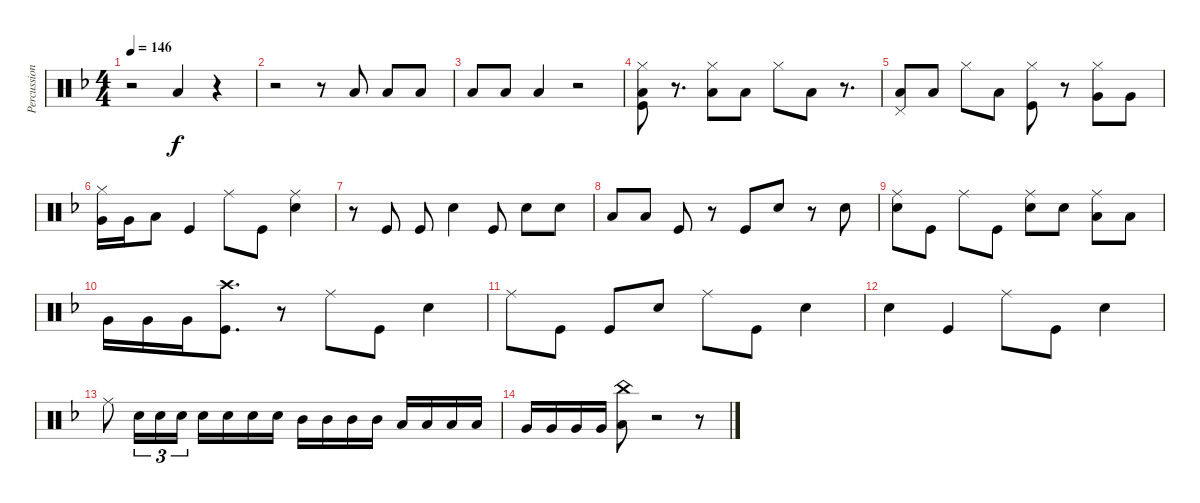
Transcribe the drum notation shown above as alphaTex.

\track ("Percussioni" "Percussion") {instrument percussion}
\staff {score}
\articulation defaults
\ts (4 4)
\tempo 146
\clef neutral
\ks dminor
r.2{dy f} "Low Floor Tom (hit)".4 r.4 |
r.2 r.8 "Low Floor Tom (hit)".8 "Low Floor Tom (hit)".8 "Low Floor Tom (hit)".8 |
"Low Floor Tom (hit)".8 "Low Floor Tom (hit)".8 "Low Floor Tom (hit)".4 r.2 |
("Kick (hit)" "Low Floor Tom (hit)" "Hi-Hat (closed)").8 r.8{d} ("Low Floor Tom (hit)" "Hi-Hat (closed)").8 "Low Floor Tom (hit)".8 "Hi-Hat (closed)".8 "Low Floor Tom (hit)".8 r.8{d} |
("Pedal Hi-Hat (hit)" "Low Floor Tom (hit)").8 "Low Floor Tom (hit)".8 "Hi-Hat (closed)".8 "Low Floor Tom (hit)".8 ("Kick (hit)" "Hi-Hat (closed)").8 r.8 ("Very Low Tom (hit)" "Hi-Hat (closed)").8 "Very Low Tom (hit)".8 |
("Very Low Tom (hit)" "Hi-Hat (closed)").16 "Very Low Tom (hit)".16 "Low Floor Tom (hit)".8 "Kick (hit)".4 "Ride (middle)".8 "Kick (hit)".8 ("Snare (hit) 2" "Ride (middle)").4 |
r.8 "Kick (hit)".8 "Kick (hit)".8 "Snare (hit) 2".4 "Kick (hit)".8 "Snare (hit) 2".8 "Snare (hit) 2".8 |
"Low Floor Tom (hit)".8 "Low Floor Tom (hit)".8 "Kick (hit)".8 r.8 "Kick (hit)".8 "Snare (hit) 2".8 r.8 "Snare (hit) 2".8 |
("Ride (middle)" "Snare (hit) 2").8 "Kick (hit)".8 "Ride (middle)".8 "Kick (hit)".8 ("Ride (middle)" "Snare (hit) 2").8 "Snare (hit) 2".8 ("Ride (middle)" "Low Floor Tom (hit)").8 "Low Floor Tom (hit)".8 |
"Very Low Tom (hit)".16 "Very Low Tom (hit)".16 "Very Low Tom (hit)".16 ("Kick (hit)" "Crash high (hit)").8{d} r.8 "Ride (middle)".8 "Kick (hit)".8 "Snare (hit) 2".4 |
"Ride (middle)".8 "Kick (hit)".8 "Kick (hit)".8 "Snare (hit) 2".8 "Ride (middle)".8 "Kick (hit)".8 "Snare (hit) 2".4 |
"Snare (hit) 2".4 "Kick (hit)".4 "Ride (middle)".8 "Kick (hit)".8 "Snare (hit) 2".4 |
"Ride (middle)".8 "Snare (hit) 2".16{tu (3 2)} "Snare (hit) 2".16{tu (3 2)} "Snare (hit) 2".16{tu (3 2)} "Snare (hit) 2".16 "Snare (hit) 2".16 "Snare (hit) 2".16 "Snare (hit) 2".16 "Mid Tom (hit)".16 "Mid Tom (hit)".16 "Mid Tom (hit)".16 "Mid Tom (hit)".16 "Low Tom (hit)".16 "Low Tom (hit)".16 "Low Tom (hit)".16 "Low Tom (hit)".16 |
"Very Low Tom (hit)".16 "Very Low Tom (hit)".16 "Very Low Tom (hit)".16 "Very Low Tom (hit)".16 ("China (hit)" "Low Floor Tom (hit)").8 r.2 r.8
